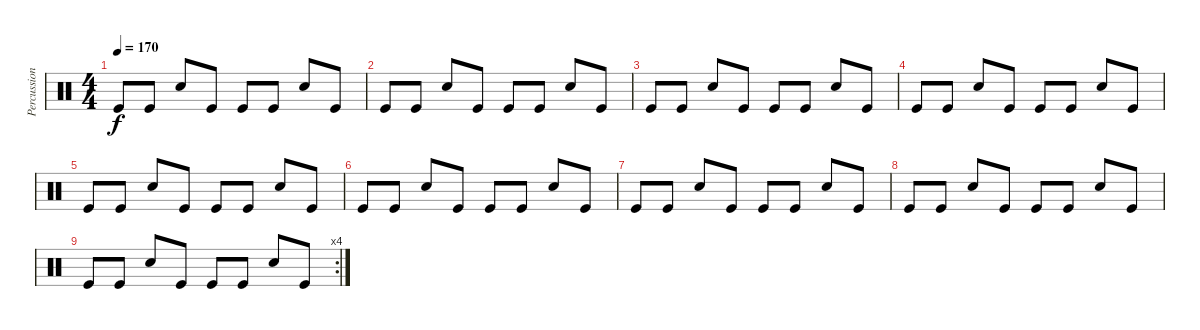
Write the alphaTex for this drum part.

\track ("Percussion" "Percussion") {instrument percussion}
\staff {score}
\articulation defaults
\ts (4 4)
\tempo 170
\clef neutral
\ks c "Kick (hit)".8{dy f} "Kick (hit)".8 "Snare (hit) 2".8 "Kick (hit)".8 "Kick (hit)".8 "Kick (hit)".8 "Snare (hit) 2".8 "Kick (hit)".8
|
"Kick (hit)".8 "Kick (hit)".8 "Snare (hit) 2".8 "Kick (hit)".8 "Kick (hit)".8 "Kick (hit)".8 "Snare (hit) 2".8 "Kick (hit)".8 |
"Kick (hit)".8 "Kick (hit)".8 "Snare (hit) 2".8 "Kick (hit)".8 "Kick (hit)".8 "Kick (hit)".8 "Snare (hit) 2".8 "Kick (hit)".8 |
"Kick (hit)".8 "Kick (hit)".8 "Snare (hit) 2".8 "Kick (hit)".8 "Kick (hit)".8 "Kick (hit)".8 "Snare (hit) 2".8 "Kick (hit)".8 |
"Kick (hit)".8 "Kick (hit)".8 "Snare (hit) 2".8 "Kick (hit)".8 "Kick (hit)".8 "Kick (hit)".8 "Snare (hit) 2".8 "Kick (hit)".8 |
"Kick (hit)".8 "Kick (hit)".8 "Snare (hit) 2".8 "Kick (hit)".8 "Kick (hit)".8 "Kick (hit)".8 "Snare (hit) 2".8 "Kick (hit)".8 |
"Kick (hit)".8 "Kick (hit)".8 "Snare (hit) 2".8 "Kick (hit)".8 "Kick (hit)".8 "Kick (hit)".8 "Snare (hit) 2".8 "Kick (hit)".8 |
"Kick (hit)".8 "Kick (hit)".8 "Snare (hit) 2".8 "Kick (hit)".8 "Kick (hit)".8 "Kick (hit)".8 "Snare (hit) 2".8 "Kick (hit)".8 |
\rc 4 "Kick (hit)".8 "Kick (hit)".8 "Snare (hit) 2".8 "Kick (hit)".8 "Kick (hit)".8 "Kick (hit)".8 "Snare (hit) 2".8 "Kick (hit)".8
